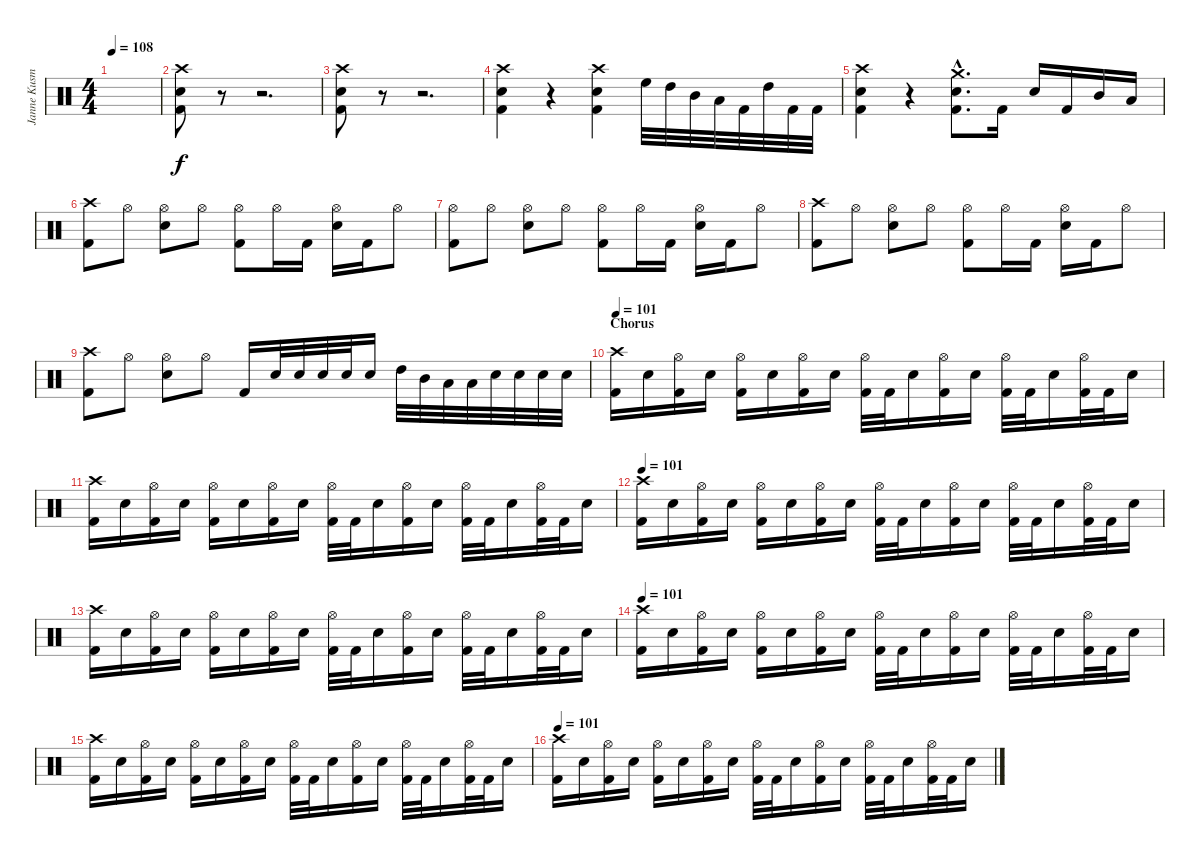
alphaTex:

\track ("Janne Kusmin" "Janne Kusm") {instrument percussion}
\staff {score}
\articulation defaults
\ts (4 4)
\tempo 108
\clef neutral
\ks c
|
("Crash high (hit)" "Snare (hit) 2" "Kick (hit) 2").8 r.8 r.2{d} |
("Crash high (hit)" "Snare (hit) 2" "Kick (hit) 2").8 r.8 r.2{d} |
("Crash high (hit)" "Snare (hit) 2" "Kick (hit) 2").4 r.4 ("Crash high (hit)" "Snare (hit) 2" "Kick (hit) 2").4 "High Floor Tom (hit)".32 "High Tom (hit)".32 "Mid Tom (hit)".32 "Low Tom (hit)".32 "Kick (hit) 2".32 "High Tom (hit)".32 "Kick (hit) 2".32 "Kick (hit) 2".32 |
("Crash high (hit)" "Snare (hit) 2" "Kick (hit) 2").4 r.4 ("Crash medium (hit)"{hac} "Snare (hit) 2"{hac} "Kick (hit) 2"{hac}).8{d} "Kick (hit) 2".16 "Snare (hit) 2".16 "Kick (hit) 2".16 "Mid Tom (hit)".16 "Low Tom (hit)".16 |
("Crash high (hit)" "Kick (hit) 2").8 "Hi-Hat (open)".8 ("Hi-Hat (open)" "Snare (hit) 2").8 "Hi-Hat (open)".8 ("Hi-Hat (open)" "Kick (hit) 2").8 "Hi-Hat (open)".16 "Kick (hit) 2".16 ("Hi-Hat (open)" "Snare (hit) 2").16 "Kick (hit) 2".16 "Hi-Hat (open)".8 |
("Hi-Hat (open)" "Kick (hit) 2").8 "Hi-Hat (open)".8 ("Hi-Hat (open)" "Snare (hit) 2").8 "Hi-Hat (open)".8 ("Hi-Hat (open)" "Kick (hit) 2").8 "Hi-Hat (open)".16 "Kick (hit) 2".16 ("Hi-Hat (open)" "Snare (hit) 2").16 "Kick (hit) 2".16 "Hi-Hat (open)".8 |
("Crash high (hit)" "Kick (hit) 2").8 "Hi-Hat (open)".8 ("Hi-Hat (open)" "Snare (hit) 2").8 "Hi-Hat (open)".8 ("Hi-Hat (open)" "Kick (hit) 2").8 "Hi-Hat (open)".16 "Kick (hit) 2".16 ("Hi-Hat (open)" "Snare (hit) 2").16 "Kick (hit) 2".16 "Hi-Hat (open)".8 |
("Crash high (hit)" "Kick (hit) 2").8 "Hi-Hat (open)".8 ("Hi-Hat (open)" "Snare (hit) 2").8 "Hi-Hat (open)".8 "Kick (hit) 2".16 "Snare (hit) 2".32 "Snare (hit) 2".32 "Snare (hit) 2".32 "Snare (hit) 2".32 "Snare (hit) 2".16 "High Tom (hit)".32 "Mid Tom (hit)".32 "Low Tom (hit)".32 "Low Tom (hit)".32 "Snare (hit) 2".32 "Snare (hit) 2".32 "Snare (hit) 2".32 "Snare (hit) 2".32 |
\section ("" "Chorus")
\tempo 101
("Crash high (hit)" "Kick (hit) 2").16 "Snare (hit) 2".16 ("Hi-Hat (open)" "Kick (hit) 2").16 "Snare (hit) 2".16 ("Hi-Hat (open)" "Kick (hit) 2").16 "Snare (hit) 2".16 ("Hi-Hat (open)" "Kick (hit) 2").16 "Snare (hit) 2".16 ("Hi-Hat (open)" "Kick (hit) 2").32 "Kick (hit) 2".32 "Snare (hit) 2".16 ("Hi-Hat (open)" "Kick (hit) 2").16 "Snare (hit) 2".16 ("Hi-Hat (open)" "Kick (hit) 2").32 "Kick (hit) 2".32 "Snare (hit) 2".16 ("Hi-Hat (open)" "Kick (hit) 2").32 "Kick (hit) 2".32 "Snare (hit) 2".16 |
("Crash high (hit)" "Kick (hit) 2").16 "Snare (hit) 2".16 ("Hi-Hat (open)" "Kick (hit) 2").16 "Snare (hit) 2".16 ("Hi-Hat (open)" "Kick (hit) 2").16 "Snare (hit) 2".16 ("Hi-Hat (open)" "Kick (hit) 2").16 "Snare (hit) 2".16 ("Hi-Hat (open)" "Kick (hit) 2").32 "Kick (hit) 2".32 "Snare (hit) 2".16 ("Hi-Hat (open)" "Kick (hit) 2").16 "Snare (hit) 2".16 ("Hi-Hat (open)" "Kick (hit) 2").32 "Kick (hit) 2".32 "Snare (hit) 2".16 ("Hi-Hat (open)" "Kick (hit) 2").32 "Kick (hit) 2".32 "Snare (hit) 2".16 |
\tempo 101
("Crash high (hit)" "Kick (hit) 2").16 "Snare (hit) 2".16 ("Hi-Hat (open)" "Kick (hit) 2").16 "Snare (hit) 2".16 ("Hi-Hat (open)" "Kick (hit) 2").16 "Snare (hit) 2".16 ("Hi-Hat (open)" "Kick (hit) 2").16 "Snare (hit) 2".16 ("Hi-Hat (open)" "Kick (hit) 2").32 "Kick (hit) 2".32 "Snare (hit) 2".16 ("Hi-Hat (open)" "Kick (hit) 2").16 "Snare (hit) 2".16 ("Hi-Hat (open)" "Kick (hit) 2").32 "Kick (hit) 2".32 "Snare (hit) 2".16 ("Hi-Hat (open)" "Kick (hit) 2").32 "Kick (hit) 2".32 "Snare (hit) 2".16 |
("Crash high (hit)" "Kick (hit) 2").16 "Snare (hit) 2".16 ("Hi-Hat (open)" "Kick (hit) 2").16 "Snare (hit) 2".16 ("Hi-Hat (open)" "Kick (hit) 2").16 "Snare (hit) 2".16 ("Hi-Hat (open)" "Kick (hit) 2").16 "Snare (hit) 2".16 ("Hi-Hat (open)" "Kick (hit) 2").32 "Kick (hit) 2".32 "Snare (hit) 2".16 ("Hi-Hat (open)" "Kick (hit) 2").16 "Snare (hit) 2".16 ("Hi-Hat (open)" "Kick (hit) 2").32 "Kick (hit) 2".32 "Snare (hit) 2".16 ("Hi-Hat (open)" "Kick (hit) 2").32 "Kick (hit) 2".32 "Snare (hit) 2".16 |
\tempo 101
("Crash high (hit)" "Kick (hit) 2").16 "Snare (hit) 2".16 ("Hi-Hat (open)" "Kick (hit) 2").16 "Snare (hit) 2".16 ("Hi-Hat (open)" "Kick (hit) 2").16 "Snare (hit) 2".16 ("Hi-Hat (open)" "Kick (hit) 2").16 "Snare (hit) 2".16 ("Hi-Hat (open)" "Kick (hit) 2").32 "Kick (hit) 2".32 "Snare (hit) 2".16 ("Hi-Hat (open)" "Kick (hit) 2").16 "Snare (hit) 2".16 ("Hi-Hat (open)" "Kick (hit) 2").32 "Kick (hit) 2".32 "Snare (hit) 2".16 ("Hi-Hat (open)" "Kick (hit) 2").32 "Kick (hit) 2".32 "Snare (hit) 2".16 |
("Crash high (hit)" "Kick (hit) 2").16 "Snare (hit) 2".16 ("Hi-Hat (open)" "Kick (hit) 2").16 "Snare (hit) 2".16 ("Hi-Hat (open)" "Kick (hit) 2").16 "Snare (hit) 2".16 ("Hi-Hat (open)" "Kick (hit) 2").16 "Snare (hit) 2".16 ("Hi-Hat (open)" "Kick (hit) 2").32 "Kick (hit) 2".32 "Snare (hit) 2".16 ("Hi-Hat (open)" "Kick (hit) 2").16 "Snare (hit) 2".16 ("Hi-Hat (open)" "Kick (hit) 2").32 "Kick (hit) 2".32 "Snare (hit) 2".16 ("Hi-Hat (open)" "Kick (hit) 2").32 "Kick (hit) 2".32 "Snare (hit) 2".16 |
\tempo 101
("Crash high (hit)" "Kick (hit) 2").16 "Snare (hit) 2".16 ("Hi-Hat (open)" "Kick (hit) 2").16 "Snare (hit) 2".16 ("Hi-Hat (open)" "Kick (hit) 2").16 "Snare (hit) 2".16 ("Hi-Hat (open)" "Kick (hit) 2").16 "Snare (hit) 2".16 ("Hi-Hat (open)" "Kick (hit) 2").32 "Kick (hit) 2".32 "Snare (hit) 2".16 ("Hi-Hat (open)" "Kick (hit) 2").16 "Snare (hit) 2".16 ("Hi-Hat (open)" "Kick (hit) 2").32 "Kick (hit) 2".32 "Snare (hit) 2".16 ("Hi-Hat (open)" "Kick (hit) 2").32 "Kick (hit) 2".32 "Snare (hit) 2".16
